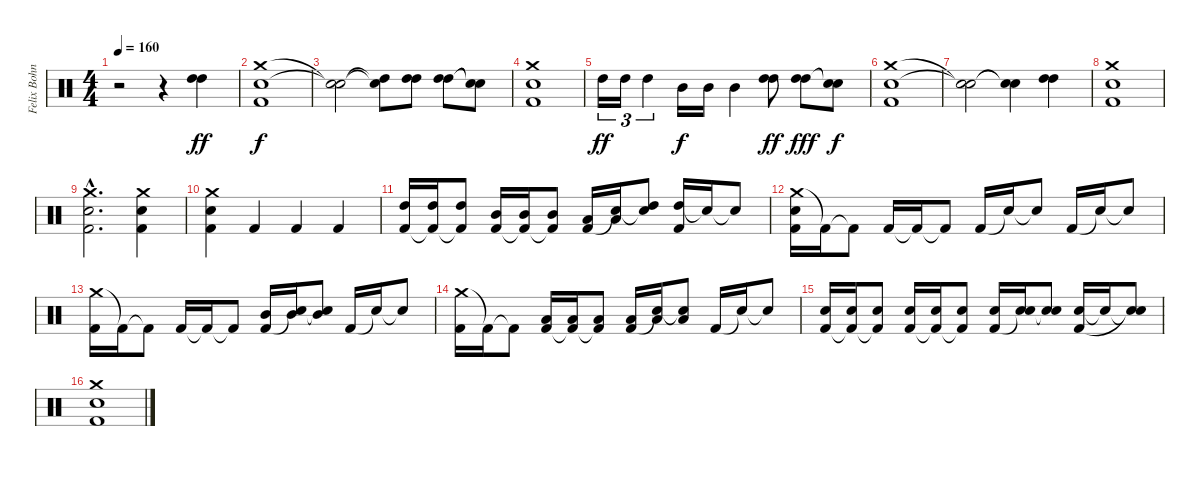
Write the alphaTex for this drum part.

\track ("Felix Bohnke" "Felix Bohn") {instrument percussion}
\staff {score}
\articulation defaults
\ts (4 4)
\tempo 160
\clef neutral
\ks c
r.2{dy ff} r.4 ("High Tom (hit)" "High Tom (hit)").4 |
("Crash medium (hit)" "Electric Snare (hit)" "Kick (hit) 2").1{dy f} |
("Snare (hit)"{t} "Snare (hit)"{t}).2 ("Snare (hit)"{t} "High Tom (hit)"{t}).8 ("High Tom (hit)" "High Tom (hit)").8 ("High Tom (hit)" "High Tom (hit)").8 ("Snare (hit)"{t} "Snare (hit)"{t}).8 |
("Crash medium (hit)" "Electric Snare (hit)" "Kick (hit) 2").1 |
"High Tom (hit)".16{tu (3 2) dy ff} "High Tom (hit)".16{tu (3 2)} "High Tom (hit)".4{tu (3 2)} "Mid Tom (hit)".16{dy f} "Mid Tom (hit)".16 "Mid Tom (hit)".4 ("High Tom (hit)" "High Tom (hit)").8{dy ff} ("High Tom (hit)" "High Tom (hit)").8{dy fff} ("Snare (hit)"{t} "Snare (hit)"{t}).8{dy f} |
("Crash medium (hit)" "Electric Snare (hit)" "Kick (hit) 2").1 |
("Snare (hit)"{t} "Snare (hit)"{t}).2 ("Snare (hit)"{t} "Snare (hit)"{t}).4 ("High Tom (hit)" "High Tom (hit)").4 |
("Crash medium (hit)" "Electric Snare (hit)" "Kick (hit) 2").1 |
("Crash medium (hit)"{hac} "Electric Snare (hit)"{hac} "Kick (hit) 2"{hac}).2{d} ("Crash medium (hit)" "Electric Snare (hit)" "Kick (hit) 2").4 |
("Crash medium (hit)" "Electric Snare (hit)" "Kick (hit) 2").4 "Kick (hit) 2".4 "Kick (hit) 2".4 "Kick (hit) 2".4 |
("High Tom (hit)" "Kick (hit) 2").16 ("High Tom (hit)" "Kick (hit) 2"{t}).16 ("High Tom (hit)" "Kick (hit) 2"{t}).8 ("Mid Tom (hit)" "Kick (hit) 2").16 ("Mid Tom (hit)" "Kick (hit) 2"{t}).16 ("Mid Tom (hit)" "Kick (hit) 2"{t}).8 ("Low Tom (hit)" "Kick (hit) 2").16 ("Low Tom (hit)" "Snare (hit)"{t}).16 ("High Tom (hit)" "Snare (hit)"{t}).8 ("High Tom (hit)" "Kick (hit) 2").16 "Snare (hit)"{t}.16 "Snare (hit)"{t}.8 |
("Crash medium (hit)" "Electric Snare (hit)" "Kick (hit) 2").16 "Kick (hit) 2"{t}.16 "Kick (hit) 2"{t}.8 "Kick (hit) 2".16 "Kick (hit) 2"{t}.16 "Kick (hit) 2"{t}.8 "Kick (hit) 2".16 "Snare (hit)"{t}.16 "Snare (hit)"{t}.8 "Kick (hit) 2".16 "Snare (hit)"{t}.16 "Snare (hit)"{t}.8 |
("Crash medium (hit)" "Kick (hit) 2").16 "Kick (hit) 2"{t}.16 "Kick (hit) 2"{t}.8 "Kick (hit) 2".16 "Kick (hit) 2"{t}.16 "Kick (hit) 2"{t}.8 ("Mid Tom (hit)" "Kick (hit) 2").16 ("Mid Tom (hit)" "Snare (hit)"{t}).16 ("Mid Tom (hit)" "Snare (hit)"{t}).8 "Kick (hit) 2".16 "Snare (hit)"{t}.16 "Snare (hit)"{t}.8 |
("Crash medium (hit)" "Kick (hit) 2").16 "Kick (hit) 2"{t}.16 "Kick (hit) 2"{t}.8 ("Low Tom (hit)" "Kick (hit) 2").16 ("Low Tom (hit)" "Kick (hit) 2"{t}).16 ("Low Tom (hit)" "Kick (hit) 2"{t}).8 ("Low Tom (hit)" "Kick (hit) 2").16 ("Low Tom (hit)" "Snare (hit)"{t}).16 ("Low Tom (hit)" "Snare (hit)"{t}).8 "Kick (hit) 2".16 "Snare (hit)"{t}.16 "Snare (hit)"{t}.8 |
("Electric Snare (hit)" "Kick (hit) 2").16 ("Electric Snare (hit)" "Kick (hit) 2"{t}).16 ("Electric Snare (hit)" "Kick (hit) 2"{t}).8 ("Electric Snare (hit)" "Kick (hit) 2").16 ("Electric Snare (hit)" "Kick (hit) 2"{t}).16 ("Electric Snare (hit)" "Kick (hit) 2"{t}).8 ("Electric Snare (hit)" "Kick (hit) 2").16 ("Electric Snare (hit)" "Snare (hit)"{t}).16 ("Electric Snare (hit)" "Snare (hit)"{t}).8 ("Electric Snare (hit)" "Kick (hit) 2").16 "Snare (hit)"{t}.16 ("Electric Snare (hit)"{t} "Snare (hit)"{t}).8 |
("Crash medium (hit)" "Electric Snare (hit)" "Kick (hit) 2").1
